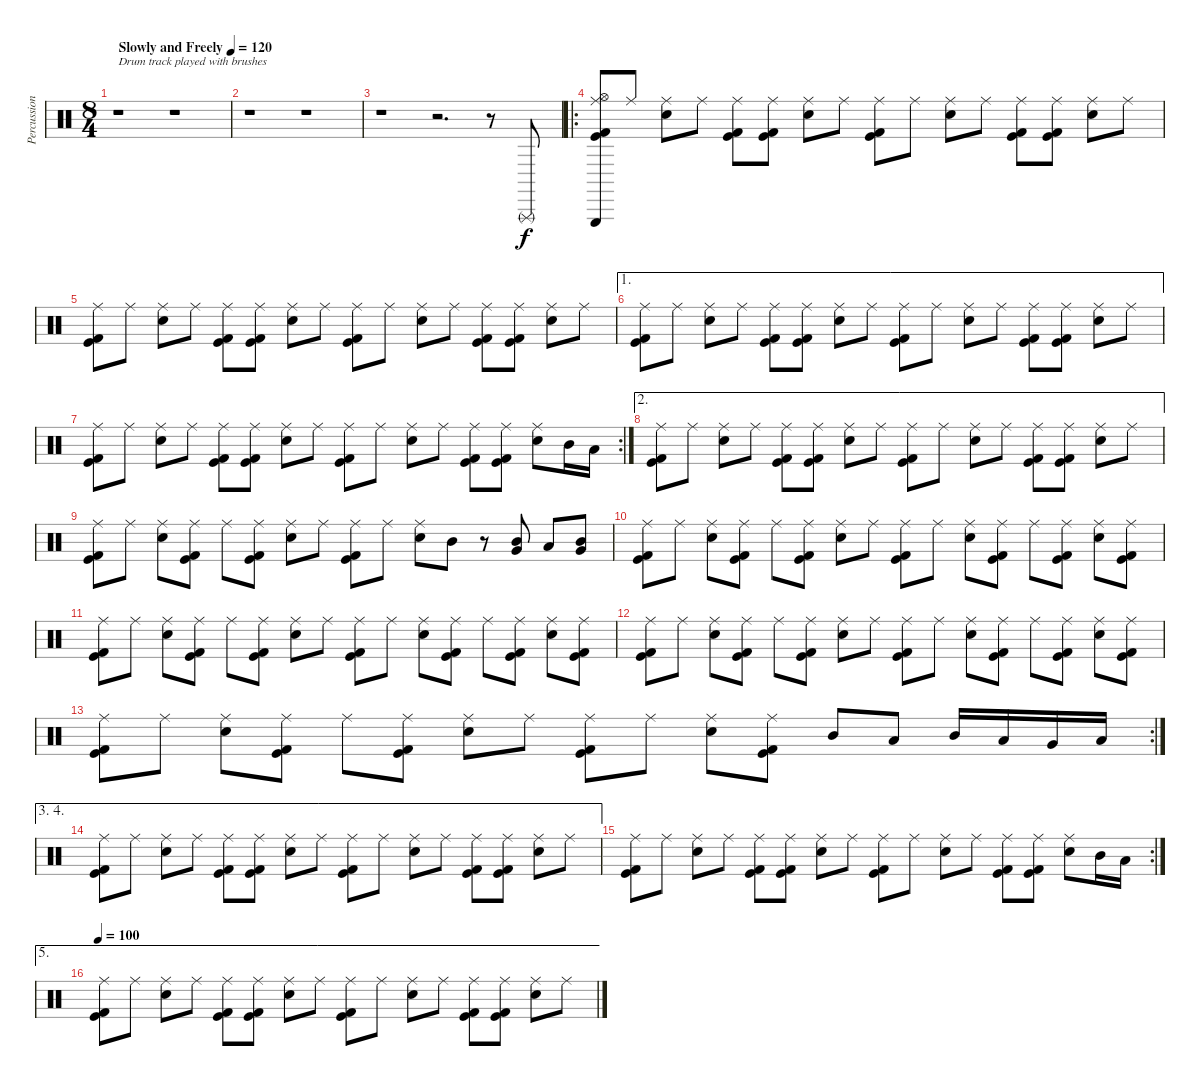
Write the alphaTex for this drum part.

\track ("Percussion" "Percussion") {instrument percussion}
\staff {score}
\articulation defaults
\ts (8 4)
\tempo (120 "Slowly and Freely")
\clef neutral
\ks c
r.1{txt "Drum track played with brushes" dy f} r.1 |
r.1 r.1 |
r.1 r.2{d} r.8 "Triangle (rnute)".8 |
\ro
("Triangle (hit)" "Hi-Hat (open)" "Kick (hit)" "Kick (hit) 2" "Ride (middle)").8 "Ride (middle)".8 ("Electric Snare (hit)" "Ride (middle)").8 "Ride (middle)".8 ("Kick (hit)" "Kick (hit) 2" "Ride (middle)").8 ("Kick (hit)" "Kick (hit) 2" "Ride (middle)").8 ("Electric Snare (hit)" "Ride (middle)").8 "Ride (middle)".8 ("Kick (hit)" "Kick (hit) 2" "Ride (middle)").8 "Ride (middle)".8 ("Electric Snare (hit)" "Ride (middle)").8 "Ride (middle)".8 ("Kick (hit)" "Kick (hit) 2" "Ride (middle)").8 ("Kick (hit)" "Kick (hit) 2" "Ride (middle)").8 ("Electric Snare (hit)" "Ride (middle)").8 "Ride (middle)".8 |
("Kick (hit)" "Kick (hit) 2" "Ride (middle)").8 "Ride (middle)".8 ("Electric Snare (hit)" "Ride (middle)").8 "Ride (middle)".8 ("Kick (hit)" "Kick (hit) 2" "Ride (middle)").8 ("Kick (hit)" "Kick (hit) 2" "Ride (middle)").8 ("Electric Snare (hit)" "Ride (middle)").8 "Ride (middle)".8 ("Kick (hit)" "Kick (hit) 2" "Ride (middle)").8 "Ride (middle)".8 ("Electric Snare (hit)" "Ride (middle)").8 "Ride (middle)".8 ("Kick (hit)" "Kick (hit) 2" "Ride (middle)").8 ("Kick (hit)" "Kick (hit) 2" "Ride (middle)").8 ("Electric Snare (hit)" "Ride (middle)").8 "Ride (middle)".8 |
\ae 1
("Kick (hit)" "Kick (hit) 2" "Ride (middle)").8 "Ride (middle)".8 ("Electric Snare (hit)" "Ride (middle)").8 "Ride (middle)".8 ("Kick (hit)" "Kick (hit) 2" "Ride (middle)").8 ("Kick (hit)" "Kick (hit) 2" "Ride (middle)").8 ("Electric Snare (hit)" "Ride (middle)").8 "Ride (middle)".8 ("Kick (hit)" "Kick (hit) 2" "Ride (middle)").8 "Ride (middle)".8 ("Electric Snare (hit)" "Ride (middle)").8 "Ride (middle)".8 ("Kick (hit)" "Kick (hit) 2" "Ride (middle)").8 ("Kick (hit)" "Kick (hit) 2" "Ride (middle)").8 ("Electric Snare (hit)" "Ride (middle)").8 "Ride (middle)".8 |
\rc 2
("Kick (hit)" "Kick (hit) 2" "Ride (middle)").8 "Ride (middle)".8 ("Electric Snare (hit)" "Ride (middle)").8 "Ride (middle)".8 ("Kick (hit)" "Kick (hit) 2" "Ride (middle)").8 ("Kick (hit)" "Kick (hit) 2" "Ride (middle)").8 ("Electric Snare (hit)" "Ride (middle)").8 "Ride (middle)".8 ("Kick (hit)" "Kick (hit) 2" "Ride (middle)").8 "Ride (middle)".8 ("Electric Snare (hit)" "Ride (middle)").8 "Ride (middle)".8 ("Kick (hit)" "Kick (hit) 2" "Ride (middle)").8 ("Kick (hit)" "Kick (hit) 2" "Ride (middle)").8 ("Electric Snare (hit)" "Ride (middle)").8 "Mid Tom (hit)".16 "Low Tom (hit)".16 |
\ae 2
("Kick (hit)" "Kick (hit) 2" "Ride (middle)").8 "Ride (middle)".8 ("Electric Snare (hit)" "Ride (middle)").8 "Ride (middle)".8 ("Kick (hit)" "Kick (hit) 2" "Ride (middle)").8 ("Kick (hit)" "Kick (hit) 2" "Ride (middle)").8 ("Electric Snare (hit)" "Ride (middle)").8 "Ride (middle)".8 ("Kick (hit)" "Kick (hit) 2" "Ride (middle)").8 "Ride (middle)".8 ("Electric Snare (hit)" "Ride (middle)").8 "Ride (middle)".8 ("Kick (hit)" "Kick (hit) 2" "Ride (middle)").8 ("Kick (hit)" "Kick (hit) 2" "Ride (middle)").8 ("Electric Snare (hit)" "Ride (middle)").8 "Ride (middle)".8 |
("Kick (hit)" "Kick (hit) 2" "Ride (middle)").8 "Ride (middle)".8 ("Electric Snare (hit)" "Ride (middle)").8 ("Kick (hit)" "Kick (hit) 2" "Ride (middle)").8 "Ride (middle)".8 ("Kick (hit)" "Kick (hit) 2" "Ride (middle)").8 ("Electric Snare (hit)" "Ride (middle)").8 "Ride (middle)".8 ("Kick (hit)" "Kick (hit) 2" "Ride (middle)").8 "Ride (middle)".8 ("Electric Snare (hit)" "Ride (middle)").8 "Mid Tom (hit)".8 r.8 ("Mid Tom (hit)" "Very Low Tom (hit)").8 "Low Tom (hit)".8 ("Mid Tom (hit)" "Very Low Tom (hit)").8 |
("Kick (hit)" "Kick (hit) 2" "Ride (middle)").8 "Ride (middle)".8 ("Electric Snare (hit)" "Ride (middle)").8 ("Kick (hit)" "Kick (hit) 2" "Ride (middle)").8 "Ride (middle)".8 ("Kick (hit)" "Kick (hit) 2" "Ride (middle)").8 ("Electric Snare (hit)" "Ride (middle)").8 "Ride (middle)".8 ("Kick (hit)" "Kick (hit) 2" "Ride (middle)").8 "Ride (middle)".8 ("Electric Snare (hit)" "Ride (middle)").8 ("Kick (hit)" "Kick (hit) 2" "Ride (middle)").8 "Ride (middle)".8 ("Kick (hit)" "Kick (hit) 2" "Ride (middle)").8 ("Electric Snare (hit)" "Ride (middle)").8 ("Kick (hit)" "Kick (hit) 2" "Ride (middle)").8 |
("Kick (hit)" "Kick (hit) 2" "Ride (middle)").8 "Ride (middle)".8 ("Electric Snare (hit)" "Ride (middle)").8 ("Kick (hit)" "Kick (hit) 2" "Ride (middle)").8 "Ride (middle)".8 ("Kick (hit)" "Kick (hit) 2" "Ride (middle)").8 ("Electric Snare (hit)" "Ride (middle)").8 "Ride (middle)".8 ("Kick (hit)" "Kick (hit) 2" "Ride (middle)").8 "Ride (middle)".8 ("Electric Snare (hit)" "Ride (middle)").8 ("Kick (hit)" "Kick (hit) 2" "Ride (middle)").8 "Ride (middle)".8 ("Kick (hit)" "Kick (hit) 2" "Ride (middle)").8 ("Electric Snare (hit)" "Ride (middle)").8 ("Kick (hit)" "Kick (hit) 2" "Ride (middle)").8 |
("Kick (hit)" "Kick (hit) 2" "Ride (middle)").8 "Ride (middle)".8 ("Electric Snare (hit)" "Ride (middle)").8 ("Kick (hit)" "Kick (hit) 2" "Ride (middle)").8 "Ride (middle)".8 ("Kick (hit)" "Kick (hit) 2" "Ride (middle)").8 ("Electric Snare (hit)" "Ride (middle)").8 "Ride (middle)".8 ("Kick (hit)" "Kick (hit) 2" "Ride (middle)").8 "Ride (middle)".8 ("Electric Snare (hit)" "Ride (middle)").8 ("Kick (hit)" "Kick (hit) 2" "Ride (middle)").8 "Ride (middle)".8 ("Kick (hit)" "Kick (hit) 2" "Ride (middle)").8 ("Electric Snare (hit)" "Ride (middle)").8 ("Kick (hit)" "Kick (hit) 2" "Ride (middle)").8 |
\rc 2
("Kick (hit)" "Kick (hit) 2" "Ride (middle)").8 "Ride (middle)".8 ("Electric Snare (hit)" "Ride (middle)").8 ("Kick (hit)" "Kick (hit) 2" "Ride (middle)").8 "Ride (middle)".8 ("Kick (hit)" "Kick (hit) 2" "Ride (middle)").8 ("Electric Snare (hit)" "Ride (middle)").8 "Ride (middle)".8 ("Kick (hit)" "Kick (hit) 2" "Ride (middle)").8 "Ride (middle)".8 ("Electric Snare (hit)" "Ride (middle)").8 ("Kick (hit)" "Kick (hit) 2" "Ride (middle)").8 "Mid Tom (hit)".8 "Low Tom (hit)".8 "Mid Tom (hit)".16 "Low Tom (hit)".16 "Very Low Tom (hit)".16 "Low Floor Tom (hit)".16 |
\ae (3 4)
("Kick (hit)" "Kick (hit) 2" "Ride (middle)").8 "Ride (middle)".8 ("Electric Snare (hit)" "Ride (middle)").8 "Ride (middle)".8 ("Kick (hit)" "Kick (hit) 2" "Ride (middle)").8 ("Kick (hit)" "Kick (hit) 2" "Ride (middle)").8 ("Electric Snare (hit)" "Ride (middle)").8 "Ride (middle)".8 ("Kick (hit)" "Kick (hit) 2" "Ride (middle)").8 "Ride (middle)".8 ("Electric Snare (hit)" "Ride (middle)").8 "Ride (middle)".8 ("Kick (hit)" "Kick (hit) 2" "Ride (middle)").8 ("Kick (hit)" "Kick (hit) 2" "Ride (middle)").8 ("Electric Snare (hit)" "Ride (middle)").8 "Ride (middle)".8 |
\rc 2
("Kick (hit)" "Kick (hit) 2" "Ride (middle)").8 "Ride (middle)".8 ("Electric Snare (hit)" "Ride (middle)").8 "Ride (middle)".8 ("Kick (hit)" "Kick (hit) 2" "Ride (middle)").8 ("Kick (hit)" "Kick (hit) 2" "Ride (middle)").8 ("Electric Snare (hit)" "Ride (middle)").8 "Ride (middle)".8 ("Kick (hit)" "Kick (hit) 2" "Ride (middle)").8 "Ride (middle)".8 ("Electric Snare (hit)" "Ride (middle)").8 "Ride (middle)".8 ("Kick (hit)" "Kick (hit) 2" "Ride (middle)").8 ("Kick (hit)" "Kick (hit) 2" "Ride (middle)").8 ("Electric Snare (hit)" "Ride (middle)").8 "Mid Tom (hit)".16 "Low Tom (hit)".16 |
\ae 5
\tempo 100
("Kick (hit)" "Kick (hit) 2" "Ride (middle)").8 "Ride (middle)".8 ("Electric Snare (hit)" "Ride (middle)").8 "Ride (middle)".8 ("Kick (hit)" "Kick (hit) 2" "Ride (middle)").8 ("Kick (hit)" "Kick (hit) 2" "Ride (middle)").8 ("Electric Snare (hit)" "Ride (middle)").8 "Ride (middle)".8 ("Kick (hit)" "Kick (hit) 2" "Ride (middle)").8 "Ride (middle)".8 ("Electric Snare (hit)" "Ride (middle)").8 "Ride (middle)".8 ("Kick (hit)" "Kick (hit) 2" "Ride (middle)").8 ("Kick (hit)" "Kick (hit) 2" "Ride (middle)").8 ("Electric Snare (hit)" "Ride (middle)").8 "Ride (middle)".8
